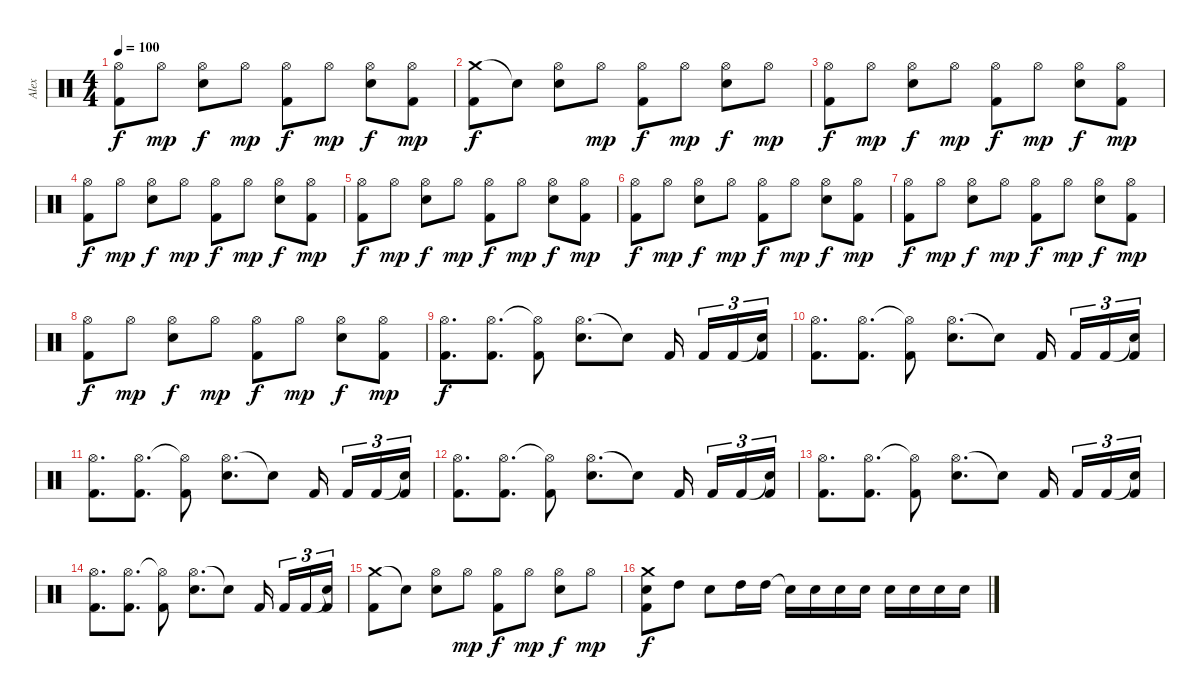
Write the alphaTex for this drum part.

\track ("Alex" "Alex") {instrument percussion}
\staff {score}
\articulation defaults
\ts (4 4)
\tempo 100
\clef neutral
\ks c
("Hi-Hat (open)" "Kick (hit) 2").8{dy f} "Hi-Hat (open)".8{dy mp} ("Hi-Hat (open)" "Electric Snare (hit)").8{dy f} "Hi-Hat (open)".8{dy mp} ("Hi-Hat (open)" "Kick (hit) 2").8{dy f} "Hi-Hat (open)".8{dy mp} ("Hi-Hat (open)" "Electric Snare (hit)").8{dy f} ("Hi-Hat (open)" "Kick (hit) 2").8{dy mp} |
("Crash medium (hit)" "Kick (hit) 2").8{dy f} "Snare (hit)"{t}.8 ("Hi-Hat (open)" "Electric Snare (hit)").8 "Hi-Hat (open)".8{dy mp} ("Hi-Hat (open)" "Kick (hit) 2").8{dy f} "Hi-Hat (open)".8{dy mp} ("Hi-Hat (open)" "Electric Snare (hit)").8{dy f} "Hi-Hat (open)".8{dy mp} |
("Hi-Hat (open)" "Kick (hit) 2").8{dy f} "Hi-Hat (open)".8{dy mp} ("Hi-Hat (open)" "Electric Snare (hit)").8{dy f} "Hi-Hat (open)".8{dy mp} ("Hi-Hat (open)" "Kick (hit) 2").8{dy f} "Hi-Hat (open)".8{dy mp} ("Hi-Hat (open)" "Electric Snare (hit)").8{dy f} ("Hi-Hat (open)" "Kick (hit) 2").8{dy mp} |
("Hi-Hat (open)" "Kick (hit) 2").8{dy f} "Hi-Hat (open)".8{dy mp} ("Hi-Hat (open)" "Electric Snare (hit)").8{dy f} "Hi-Hat (open)".8{dy mp} ("Hi-Hat (open)" "Kick (hit) 2").8{dy f} "Hi-Hat (open)".8{dy mp} ("Hi-Hat (open)" "Electric Snare (hit)").8{dy f} ("Hi-Hat (open)" "Kick (hit) 2").8{dy mp} |
("Hi-Hat (open)" "Kick (hit) 2").8{dy f} "Hi-Hat (open)".8{dy mp} ("Hi-Hat (open)" "Electric Snare (hit)").8{dy f} "Hi-Hat (open)".8{dy mp} ("Hi-Hat (open)" "Kick (hit) 2").8{dy f} "Hi-Hat (open)".8{dy mp} ("Hi-Hat (open)" "Electric Snare (hit)").8{dy f} ("Hi-Hat (open)" "Kick (hit) 2").8{dy mp} |
("Hi-Hat (open)" "Kick (hit) 2").8{dy f} "Hi-Hat (open)".8{dy mp} ("Hi-Hat (open)" "Electric Snare (hit)").8{dy f} "Hi-Hat (open)".8{dy mp} ("Hi-Hat (open)" "Kick (hit) 2").8{dy f} "Hi-Hat (open)".8{dy mp} ("Hi-Hat (open)" "Electric Snare (hit)").8{dy f} ("Hi-Hat (open)" "Kick (hit) 2").8{dy mp} |
("Hi-Hat (open)" "Kick (hit) 2").8{dy f} "Hi-Hat (open)".8{dy mp} ("Hi-Hat (open)" "Electric Snare (hit)").8{dy f} "Hi-Hat (open)".8{dy mp} ("Hi-Hat (open)" "Kick (hit) 2").8{dy f} "Hi-Hat (open)".8{dy mp} ("Hi-Hat (open)" "Electric Snare (hit)").8{dy f} ("Hi-Hat (open)" "Kick (hit) 2").8{dy mp} |
("Hi-Hat (open)" "Kick (hit) 2").8{dy f} "Hi-Hat (open)".8{dy mp} ("Hi-Hat (open)" "Electric Snare (hit)").8{dy f} "Hi-Hat (open)".8{dy mp} ("Hi-Hat (open)" "Kick (hit) 2").8{dy f} "Hi-Hat (open)".8{dy mp} ("Hi-Hat (open)" "Electric Snare (hit)").8{dy f} ("Hi-Hat (open)" "Kick (hit) 2").8{dy mp} |
("Hi-Hat (open)" "Kick (hit) 2").8{d dy f} ("Hi-Hat (open)" "Kick (hit) 2").8{d} ("Hi-Hat (open)"{t} "Kick (hit) 2").8 ("Hi-Hat (open)" "Electric Snare (hit)").8{d} "Snare (hit)"{t}.8 "Kick (hit) 2".16 "Kick (hit) 2".16{tu (3 2)} "Kick (hit) 2".16{tu (3 2)} ("Snare (hit)"{t} "Kick (hit) 2").16{tu (3 2)} |
("Hi-Hat (open)" "Kick (hit) 2").8{d} ("Hi-Hat (open)" "Kick (hit) 2").8{d} ("Hi-Hat (open)"{t} "Kick (hit) 2").8 ("Hi-Hat (open)" "Electric Snare (hit)").8{d} "Snare (hit)"{t}.8 "Kick (hit) 2".16 "Kick (hit) 2".16{tu (3 2)} "Kick (hit) 2".16{tu (3 2)} ("Snare (hit)"{t} "Kick (hit) 2").16{tu (3 2)} |
("Hi-Hat (open)" "Kick (hit) 2").8{d} ("Hi-Hat (open)" "Kick (hit) 2").8{d} ("Hi-Hat (open)"{t} "Kick (hit) 2").8 ("Hi-Hat (open)" "Electric Snare (hit)").8{d} "Snare (hit)"{t}.8 "Kick (hit) 2".16 "Kick (hit) 2".16{tu (3 2)} "Kick (hit) 2".16{tu (3 2)} ("Snare (hit)"{t} "Kick (hit) 2").16{tu (3 2)} |
("Hi-Hat (open)" "Kick (hit) 2").8{d} ("Hi-Hat (open)" "Kick (hit) 2").8{d} ("Hi-Hat (open)"{t} "Kick (hit) 2").8 ("Hi-Hat (open)" "Electric Snare (hit)").8{d} "Snare (hit)"{t}.8 "Kick (hit) 2".16 "Kick (hit) 2".16{tu (3 2)} "Kick (hit) 2".16{tu (3 2)} ("Snare (hit)"{t} "Kick (hit) 2").16{tu (3 2)} |
("Hi-Hat (open)" "Kick (hit) 2").8{d} ("Hi-Hat (open)" "Kick (hit) 2").8{d} ("Hi-Hat (open)"{t} "Kick (hit) 2").8 ("Hi-Hat (open)" "Electric Snare (hit)").8{d} "Snare (hit)"{t}.8 "Kick (hit) 2".16 "Kick (hit) 2".16{tu (3 2)} "Kick (hit) 2".16{tu (3 2)} ("Snare (hit)"{t} "Kick (hit) 2").16{tu (3 2)} |
("Hi-Hat (open)" "Kick (hit) 2").8{d} ("Hi-Hat (open)" "Kick (hit) 2").8{d} ("Hi-Hat (open)"{t} "Kick (hit) 2").8 ("Hi-Hat (open)" "Electric Snare (hit)").8{d} "Snare (hit)"{t}.8 "Kick (hit) 2".16 "Kick (hit) 2".16{tu (3 2)} "Kick (hit) 2".16{tu (3 2)} ("Snare (hit)"{t} "Kick (hit) 2").16{tu (3 2)} |
("Crash medium (hit)" "Kick (hit) 2").8 "Snare (hit)"{t}.8 ("Hi-Hat (open)" "Electric Snare (hit)").8 "Hi-Hat (open)".8{dy mp} ("Hi-Hat (open)" "Kick (hit) 2").8{dy f} "Hi-Hat (open)".8{dy mp} ("Hi-Hat (open)" "Electric Snare (hit)").8{dy f} "Hi-Hat (open)".8{dy mp} |
("Crash medium (hit)" "Electric Snare (hit)" "Kick (hit) 2").8{dy f} "High Tom (hit)".8 "Electric Snare (hit)".8 "High Tom (hit)".16 "High Tom (hit)".16 "Snare (hit)"{t}.16 "Electric Snare (hit)".16 "Electric Snare (hit)".16 "Electric Snare (hit)".16 "Electric Snare (hit)".16 "Electric Snare (hit)".16 "Electric Snare (hit)".16 "Electric Snare (hit)".16
